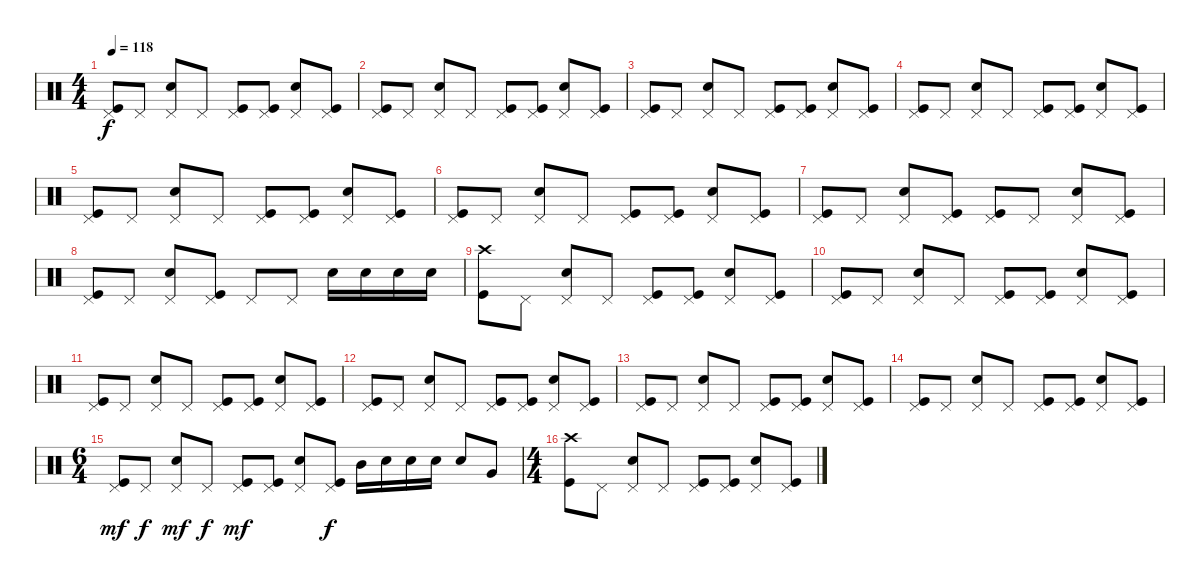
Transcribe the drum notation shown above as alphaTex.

\track "" {instrument percussion}
\staff {score}
\articulation defaults
\ts (4 4)
\tempo 118
\clef neutral
\ks c
("Pedal Hi-Hat (hit)" "Kick (hit)").8{dy f} "Pedal Hi-Hat (hit)".8 ("Pedal Hi-Hat (hit)" "Snare (hit) 2").8 "Pedal Hi-Hat (hit)".8 ("Pedal Hi-Hat (hit)" "Kick (hit)").8 ("Pedal Hi-Hat (hit)" "Kick (hit)").8 ("Pedal Hi-Hat (hit)" "Snare (hit) 2").8 ("Pedal Hi-Hat (hit)" "Kick (hit)").8 |
("Pedal Hi-Hat (hit)" "Kick (hit)").8 "Pedal Hi-Hat (hit)".8 ("Pedal Hi-Hat (hit)" "Snare (hit) 2").8 "Pedal Hi-Hat (hit)".8 ("Pedal Hi-Hat (hit)" "Kick (hit)").8 ("Pedal Hi-Hat (hit)" "Kick (hit)").8 ("Pedal Hi-Hat (hit)" "Snare (hit) 2").8 ("Pedal Hi-Hat (hit)" "Kick (hit)").8 |
("Pedal Hi-Hat (hit)" "Kick (hit)").8 "Pedal Hi-Hat (hit)".8 ("Pedal Hi-Hat (hit)" "Snare (hit) 2").8 "Pedal Hi-Hat (hit)".8 ("Pedal Hi-Hat (hit)" "Kick (hit)").8 ("Pedal Hi-Hat (hit)" "Kick (hit)").8 ("Pedal Hi-Hat (hit)" "Snare (hit) 2").8 ("Pedal Hi-Hat (hit)" "Kick (hit)").8 |
("Pedal Hi-Hat (hit)" "Kick (hit)").8 "Pedal Hi-Hat (hit)".8 ("Pedal Hi-Hat (hit)" "Snare (hit) 2").8 "Pedal Hi-Hat (hit)".8 ("Pedal Hi-Hat (hit)" "Kick (hit)").8 ("Pedal Hi-Hat (hit)" "Kick (hit)").8 ("Pedal Hi-Hat (hit)" "Snare (hit) 2").8 ("Pedal Hi-Hat (hit)" "Kick (hit)").8 |
("Pedal Hi-Hat (hit)" "Kick (hit)").8 "Pedal Hi-Hat (hit)".8 ("Pedal Hi-Hat (hit)" "Snare (hit) 2").8 "Pedal Hi-Hat (hit)".8 ("Pedal Hi-Hat (hit)" "Kick (hit)").8 ("Pedal Hi-Hat (hit)" "Kick (hit)").8 ("Pedal Hi-Hat (hit)" "Snare (hit) 2").8 ("Pedal Hi-Hat (hit)" "Kick (hit)").8 |
("Pedal Hi-Hat (hit)" "Kick (hit)").8 "Pedal Hi-Hat (hit)".8 ("Pedal Hi-Hat (hit)" "Snare (hit) 2").8 "Pedal Hi-Hat (hit)".8 ("Pedal Hi-Hat (hit)" "Kick (hit)").8 ("Pedal Hi-Hat (hit)" "Kick (hit)").8 ("Pedal Hi-Hat (hit)" "Snare (hit) 2").8 ("Pedal Hi-Hat (hit)" "Kick (hit)").8 |
("Pedal Hi-Hat (hit)" "Kick (hit)").8 "Pedal Hi-Hat (hit)".8 ("Pedal Hi-Hat (hit)" "Snare (hit) 2").8 ("Pedal Hi-Hat (hit)" "Kick (hit)").8 ("Pedal Hi-Hat (hit)" "Kick (hit)").8 "Pedal Hi-Hat (hit)".8 ("Pedal Hi-Hat (hit)" "Snare (hit) 2").8 ("Pedal Hi-Hat (hit)" "Kick (hit)").8 |
("Pedal Hi-Hat (hit)" "Kick (hit)").8 "Pedal Hi-Hat (hit)".8 ("Pedal Hi-Hat (hit)" "Snare (hit) 2").8 ("Pedal Hi-Hat (hit)" "Kick (hit)").8 "Pedal Hi-Hat (hit)".8 "Pedal Hi-Hat (hit)".8 "Snare (hit) 2".16 "Snare (hit) 2".16 "Snare (hit) 2".16 "Snare (hit) 2".16 |
("Crash high (hit)" "Kick (hit)").8 "Pedal Hi-Hat (hit)".8 ("Pedal Hi-Hat (hit)" "Snare (hit) 2").8 "Pedal Hi-Hat (hit)".8 ("Pedal Hi-Hat (hit)" "Kick (hit)").8 ("Pedal Hi-Hat (hit)" "Kick (hit)").8 ("Pedal Hi-Hat (hit)" "Snare (hit) 2").8 ("Pedal Hi-Hat (hit)" "Kick (hit)").8 |
("Pedal Hi-Hat (hit)" "Kick (hit)").8 "Pedal Hi-Hat (hit)".8 ("Pedal Hi-Hat (hit)" "Snare (hit) 2").8 "Pedal Hi-Hat (hit)".8 ("Pedal Hi-Hat (hit)" "Kick (hit)").8 ("Pedal Hi-Hat (hit)" "Kick (hit)").8 ("Pedal Hi-Hat (hit)" "Snare (hit) 2").8 ("Pedal Hi-Hat (hit)" "Kick (hit)").8 |
("Pedal Hi-Hat (hit)" "Kick (hit)").8 "Pedal Hi-Hat (hit)".8 ("Pedal Hi-Hat (hit)" "Snare (hit) 2").8 "Pedal Hi-Hat (hit)".8 ("Pedal Hi-Hat (hit)" "Kick (hit)").8 ("Pedal Hi-Hat (hit)" "Kick (hit)").8 ("Pedal Hi-Hat (hit)" "Snare (hit) 2").8 ("Pedal Hi-Hat (hit)" "Kick (hit)").8 |
("Pedal Hi-Hat (hit)" "Kick (hit)").8 "Pedal Hi-Hat (hit)".8 ("Pedal Hi-Hat (hit)" "Snare (hit) 2").8 "Pedal Hi-Hat (hit)".8 ("Pedal Hi-Hat (hit)" "Kick (hit)").8 ("Pedal Hi-Hat (hit)" "Kick (hit)").8 ("Pedal Hi-Hat (hit)" "Snare (hit) 2").8 ("Pedal Hi-Hat (hit)" "Kick (hit)").8 |
("Pedal Hi-Hat (hit)" "Kick (hit)").8 "Pedal Hi-Hat (hit)".8 ("Pedal Hi-Hat (hit)" "Snare (hit) 2").8 "Pedal Hi-Hat (hit)".8 ("Pedal Hi-Hat (hit)" "Kick (hit)").8 ("Pedal Hi-Hat (hit)" "Kick (hit)").8 ("Pedal Hi-Hat (hit)" "Snare (hit) 2").8 ("Pedal Hi-Hat (hit)" "Kick (hit)").8 |
("Pedal Hi-Hat (hit)" "Kick (hit)").8 "Pedal Hi-Hat (hit)".8 ("Pedal Hi-Hat (hit)" "Snare (hit) 2").8 "Pedal Hi-Hat (hit)".8 ("Pedal Hi-Hat (hit)" "Kick (hit)").8 ("Pedal Hi-Hat (hit)" "Kick (hit)").8 ("Pedal Hi-Hat (hit)" "Snare (hit) 2").8 ("Pedal Hi-Hat (hit)" "Kick (hit)").8 |
\ts (6 4)
("Pedal Hi-Hat (hit)" "Kick (hit)").8{dy mf} "Pedal Hi-Hat (hit)".8{dy f} ("Pedal Hi-Hat (hit)" "Snare (hit) 2").8{dy mf} "Pedal Hi-Hat (hit)".8{dy f} ("Pedal Hi-Hat (hit)" "Kick (hit)").8{dy mf} ("Pedal Hi-Hat (hit)" "Kick (hit)").8 ("Pedal Hi-Hat (hit)" "Snare (hit) 2").8 ("Pedal Hi-Hat (hit)" "Kick (hit)").8{dy f} "Mid Tom (hit)".16 "Snare (hit) 2".16 "Snare (hit) 2".16 "Snare (hit) 2".16 "Snare (hit) 2".8 "Very Low Tom (hit)".8 |
\ts (4 4)
("Crash high (hit)" "Kick (hit)").8 "Pedal Hi-Hat (hit)".8 ("Pedal Hi-Hat (hit)" "Snare (hit) 2").8 "Pedal Hi-Hat (hit)".8 ("Pedal Hi-Hat (hit)" "Kick (hit)").8 ("Pedal Hi-Hat (hit)" "Kick (hit)").8 ("Pedal Hi-Hat (hit)" "Snare (hit) 2").8 ("Pedal Hi-Hat (hit)" "Kick (hit)").8
